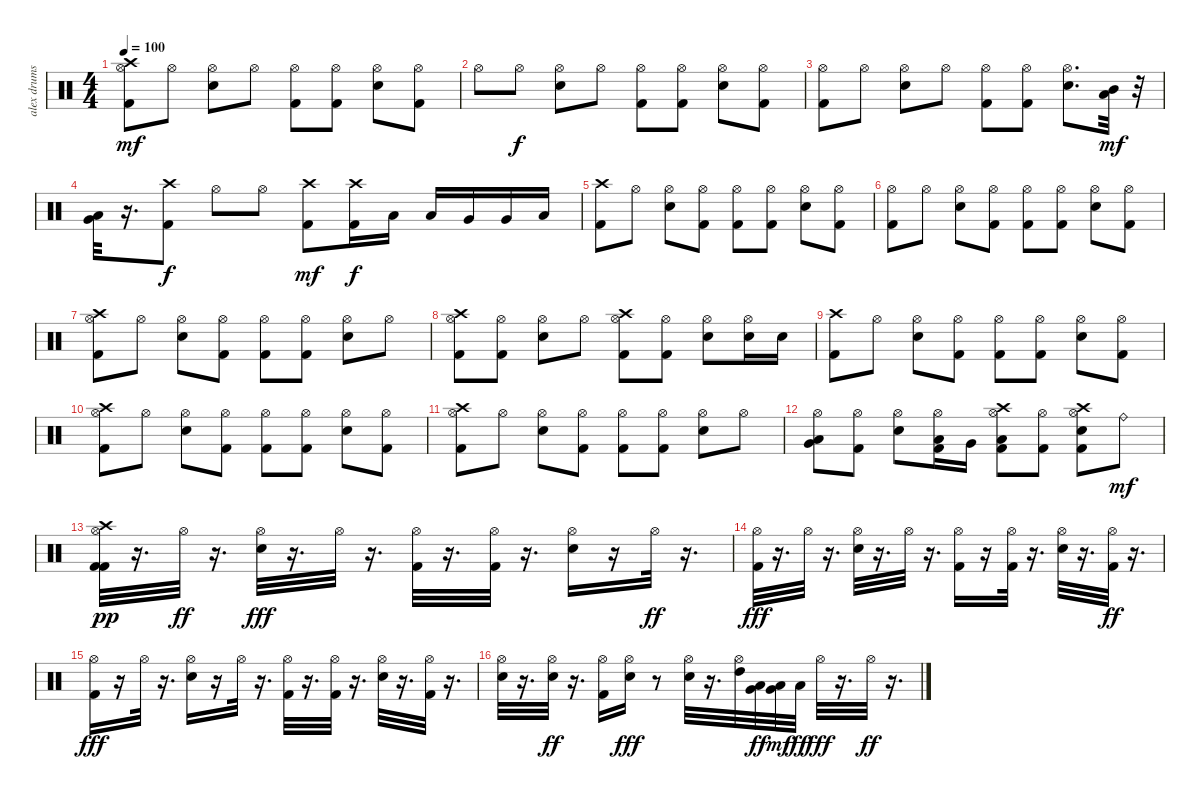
\track ("alex drums" "alex drums") {instrument percussion}
\staff {score}
\articulation defaults
\ts (4 4)
\tempo 100
\clef neutral
\ks c
("Crash high (hit)" "Hi-Hat (open)" "Kick (hit) 2").8{dy mf} "Hi-Hat (open)".8 ("Hi-Hat (open)" "Snare (hit) 2").8 "Hi-Hat (open)".8 ("Hi-Hat (open)" "Kick (hit) 2").8 ("Hi-Hat (open)" "Kick (hit) 2").8 ("Hi-Hat (open)" "Snare (hit) 2").8 ("Kick (hit) 2" "Hi-Hat (open)").8 |
"Hi-Hat (open)".8 "Hi-Hat (open)".8{dy f} ("Electric Snare (hit)" "Hi-Hat (open)").8 "Hi-Hat (open)".8 ("Kick (hit) 2" "Hi-Hat (open)").8 ("Kick (hit) 2" "Hi-Hat (open)").8 ("Electric Snare (hit)" "Hi-Hat (open)").8 ("Kick (hit) 2" "Hi-Hat (open)").8 |
("Kick (hit) 2" "Hi-Hat (open)").8 "Hi-Hat (open)".8 ("Electric Snare (hit)" "Hi-Hat (open)").8 "Hi-Hat (open)".8 ("Kick (hit) 2" "Hi-Hat (open)").8 ("Kick (hit) 2" "Hi-Hat (open)").8 ("Electric Snare (hit)" "Hi-Hat (open)").8{d} ("Low Tom (hit)" "Mid Tom (hit)").32{dy mf} r.32 |
("Low Floor Tom (hit)" "Very Low Tom (hit)").32 r.16{d} ("Kick (hit) 2" "Crash high (hit)").8{dy f} "Hi-Hat (open)".8 "Hi-Hat (open)".8 ("Kick (hit) 2" "Crash high (hit)").8{dy mf} ("Kick (hit) 2" "Crash high (hit)").16{dy f} "Low Tom (hit)".16 "Low Tom (hit)".16 "Very Low Tom (hit)".16 "Very Low Tom (hit)".16 "Low Floor Tom (hit)".16 |
("Kick (hit) 2" "Crash high (hit)").8 "Hi-Hat (open)".8 ("Electric Snare (hit)" "Hi-Hat (open)").8 ("Kick (hit) 2" "Hi-Hat (open)").8 ("Kick (hit) 2" "Hi-Hat (open)").8 ("Kick (hit) 2" "Hi-Hat (open)").8 ("Electric Snare (hit)" "Hi-Hat (open)").8 ("Kick (hit) 2" "Hi-Hat (open)").8 |
("Kick (hit) 2" "Hi-Hat (open)").8 "Hi-Hat (open)".8 ("Electric Snare (hit)" "Hi-Hat (open)").8 ("Kick (hit) 2" "Hi-Hat (open)").8 ("Kick (hit) 2" "Hi-Hat (open)").8 ("Kick (hit) 2" "Hi-Hat (open)").8 ("Electric Snare (hit)" "Hi-Hat (open)").8 ("Kick (hit) 2" "Hi-Hat (open)").8 |
("Kick (hit) 2" "Hi-Hat (open)" "Crash high (hit)").8 "Hi-Hat (open)".8 ("Electric Snare (hit)" "Hi-Hat (open)").8 ("Kick (hit) 2" "Hi-Hat (open)").8 ("Kick (hit) 2" "Hi-Hat (open)").8 ("Kick (hit) 2" "Hi-Hat (open)").8 ("Electric Snare (hit)" "Hi-Hat (open)").8 "Hi-Hat (open)".8 |
("Kick (hit) 2" "Hi-Hat (open)" "Crash high (hit)").8 ("Kick (hit) 2" "Hi-Hat (open)").8 ("Electric Snare (hit)" "Hi-Hat (open)").8 "Hi-Hat (open)".8 ("Kick (hit) 2" "Hi-Hat (open)" "Crash high (hit)").8 ("Kick (hit) 2" "Hi-Hat (open)").8 ("Electric Snare (hit)" "Hi-Hat (open)").8 ("Electric Snare (hit)" "Hi-Hat (open)").16 "Electric Snare (hit)".16 |
("Kick (hit) 2" "Crash high (hit)").8 "Hi-Hat (open)".8 ("Electric Snare (hit)" "Hi-Hat (open)").8 ("Kick (hit) 2" "Hi-Hat (open)").8 ("Kick (hit) 2" "Hi-Hat (open)").8 ("Kick (hit) 2" "Hi-Hat (open)").8 ("Electric Snare (hit)" "Hi-Hat (open)").8 ("Kick (hit) 2" "Hi-Hat (open)").8 |
("Kick (hit) 2" "Hi-Hat (open)" "Crash high (hit)").8 "Hi-Hat (open)".8 ("Electric Snare (hit)" "Hi-Hat (open)").8 ("Kick (hit) 2" "Hi-Hat (open)").8 ("Kick (hit) 2" "Hi-Hat (open)").8 ("Kick (hit) 2" "Hi-Hat (open)").8 ("Electric Snare (hit)" "Hi-Hat (open)").8 ("Kick (hit) 2" "Hi-Hat (open)").8 |
("Kick (hit) 2" "Hi-Hat (open)" "Crash high (hit)").8 "Hi-Hat (open)".8 ("Electric Snare (hit)" "Hi-Hat (open)").8 ("Kick (hit) 2" "Hi-Hat (open)").8 ("Kick (hit) 2" "Hi-Hat (open)").8 ("Kick (hit) 2" "Hi-Hat (open)").8 ("Electric Snare (hit)" "Hi-Hat (open)").8 "Hi-Hat (open)".8 |
("Low Tom (hit)" "Very Low Tom (hit)" "Hi-Hat (open)").8 ("Kick (hit) 2" "Hi-Hat (open)").8 ("Electric Snare (hit)" "Hi-Hat (open)").8 ("Kick (hit) 2" "Low Tom (hit)" "Hi-Hat (open)").16 "Very Low Tom (hit)".16 ("Kick (hit) 2" "Low Floor Tom (hit)" "Hi-Hat (open)" "Crash high (hit)").8 ("Kick (hit) 2" "Hi-Hat (open)").8 ("Kick (hit) 2" "Electric Snare (hit)" "Hi-Hat (open)" "Crash high (hit)").8 "Ride (bell)".8{dy mf} |
("Kick (hit) 2" "Hi-Hat (open)" "Crash high (hit)" "Kick (hit) 2").32{dy pp} r.16{d} "Hi-Hat (open)".32{dy ff} r.16{d} ("Electric Snare (hit)" "Hi-Hat (open)").32{dy fff} r.16{d} "Hi-Hat (open)".32 r.16{d} ("Hi-Hat (open)" "Kick (hit) 2").32 r.16{d} ("Hi-Hat (open)" "Kick (hit) 2").32 r.16{d} ("Electric Snare (hit)" "Hi-Hat (open)").16 r.16 "Hi-Hat (open)".32{dy ff} r.16{d} |
("Kick (hit) 2" "Hi-Hat (open)").32{dy fff} r.16{d} "Hi-Hat (open)".32 r.16{d} ("Hi-Hat (open)" "Electric Snare (hit)").32 r.16{d} "Hi-Hat (open)".32 r.16{d} ("Kick (hit) 2" "Hi-Hat (open)").16 r.16 ("Hi-Hat (open)" "Kick (hit) 2").32 r.16{d} ("Hi-Hat (open)" "Electric Snare (hit)").32 r.16{d} ("Kick (hit) 2" "Hi-Hat (open)").32{dy ff} r.16{d} |
("Hi-Hat (open)" "Kick (hit) 2").16{dy fff} r.16 "Hi-Hat (open)".32 r.16{d} ("Hi-Hat (open)" "Electric Snare (hit)").16 r.16 "Hi-Hat (open)".32 r.16{d} ("Hi-Hat (open)" "Kick (hit) 2").32 r.16{d} ("Hi-Hat (open)" "Kick (hit) 2").32 r.16{d} ("Hi-Hat (open)" "Electric Snare (hit)").32 r.16{d} ("Hi-Hat (open)" "Kick (hit) 2").32 r.16{d} |
("Hi-Hat (open)" "Electric Snare (hit)").32 r.16{d} ("Hi-Hat (open)" "Electric Snare (hit)").32{dy ff} r.16{d} ("Hi-Hat (open)" "Kick (hit) 2").16 ("Hi-Hat (open)" "Electric Snare (hit)").16{dy fff} r.8 ("Electric Snare (hit)" "Hi-Hat (open)").32 r.16{d} ("High Tom (hit)" "Hi-Hat (open)").32 ("Very Low Tom (hit)" "Low Tom (hit)").32{dy ff} ("Very Low Tom (hit)" "Low Tom (hit)").32{dy mf} "Low Floor Tom (hit)".32{dy ff} "Hi-Hat (open)".32{dy fff} r.16{d} "Hi-Hat (open)".32{dy ff} r.16{d}
